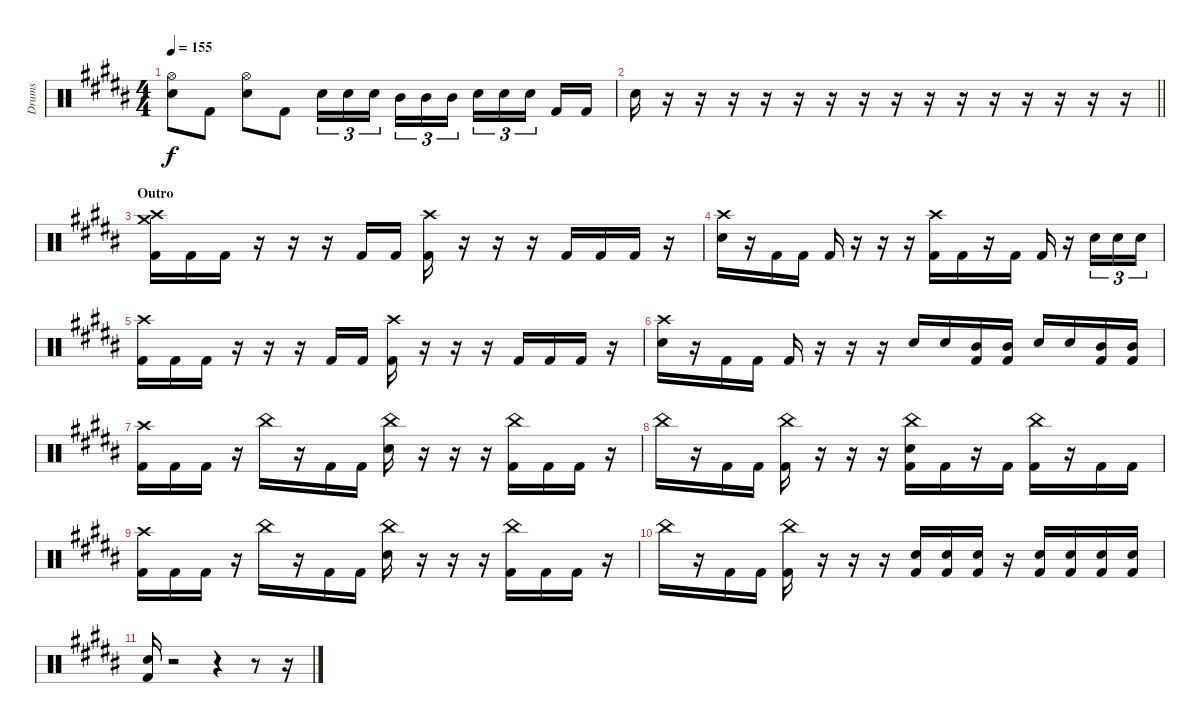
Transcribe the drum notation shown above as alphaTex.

\track ("Drums" "Drums") {instrument percussion}
\staff {score}
\articulation defaults
\ts (4 4)
\tempo 155
\clef neutral
\ks g#minor
("Hi-Hat (open)" "Electric Snare (hit)").8{dy f} "Kick (hit) 2".8 ("Hi-Hat (open)" "Electric Snare (hit)").8 "Kick (hit) 2".8 "Electric Snare (hit)".16{tu (3 2)} "Electric Snare (hit)".16{tu (3 2)} "Electric Snare (hit)".16{tu (3 2) beam splitsecondary} "Mid Tom (hit)".16{tu (3 2)} "Mid Tom (hit)".16{tu (3 2)} "Mid Tom (hit)".16{tu (3 2)} "Electric Snare (hit)".16{tu (3 2)} "Electric Snare (hit)".16{tu (3 2)} "Electric Snare (hit)".16{tu (3 2) beam splitsecondary} "Kick (hit) 2".16 "Kick (hit) 2".16 |
\barLineRight lightlight "Electric Snare (hit)".16
r.16 r.16 r.16 r.16 r.16 r.16 r.16 r.16 r.16 r.16 r.16 r.16 r.16 r.16 r.16 |
\section ("" "Outro")
("Crash high (hit)" "Crash medium (hit)" "Kick (hit) 2").16 "Kick (hit) 2".16 "Kick (hit) 2".16 r.16 r.16 r.16 "Kick (hit) 2".16 "Kick (hit) 2".16 ("Crash high (hit)" "Kick (hit) 2").16 r.16 r.16 r.16 "Kick (hit) 2".16 "Kick (hit) 2".16 "Kick (hit) 2".16 r.16 |
("Crash high (hit)" "Electric Snare (hit)").16 r.16 "Kick (hit) 2".16 "Kick (hit) 2".16 "Kick (hit) 2".16 r.16 r.16 r.16 ("Crash high (hit)" "Kick (hit) 2").16 "Kick (hit) 2".16 r.16 "Kick (hit) 2".16 "Kick (hit) 2".16 r.16 "Electric Snare (hit)".16{tu (3 2)} "Electric Snare (hit)".16{tu (3 2)} "Electric Snare (hit)".16{tu (3 2)} |
("Crash high (hit)" "Kick (hit) 2").16 "Kick (hit) 2".16 "Kick (hit) 2".16 r.16 r.16 r.16 "Kick (hit) 2".16 "Kick (hit) 2".16 ("Crash high (hit)" "Kick (hit) 2").16 r.16 r.16 r.16 "Kick (hit) 2".16 "Kick (hit) 2".16 "Kick (hit) 2".16 r.16 |
("Crash high (hit)" "Electric Snare (hit)").16 r.16 "Kick (hit) 2".16 "Kick (hit) 2".16 "Kick (hit) 2".16 r.16 r.16 r.16 "Electric Snare (hit)".16 "Electric Snare (hit)".16 ("Mid Tom (hit)" "Kick (hit) 2").16 ("Mid Tom (hit)" "Kick (hit) 2").16 "Electric Snare (hit)".16 "Electric Snare (hit)".16 ("Mid Tom (hit)" "Kick (hit) 2").16 ("Mid Tom (hit)" "Kick (hit) 2").16 |
("Crash high (hit)" "Kick (hit) 2").16 "Kick (hit) 2".16 "Kick (hit) 2".16 r.16 "China (hit)".16 r.16 "Kick (hit) 2".16 "Kick (hit) 2".16 ("China (hit)" "Electric Snare (hit)").16 r.16 r.16 r.16 ("China (hit)" "Kick (hit) 2").16 "Kick (hit) 2".16 "Kick (hit) 2".16 r.16 |
"China (hit)".16 r.16 "Kick (hit) 2".16 "Kick (hit) 2".16 ("China (hit)" "Kick (hit) 2").16 r.16 r.16 r.16 ("China (hit)" "Electric Snare (hit)" "Kick (hit) 2").16 "Kick (hit) 2".16 r.16 "Kick (hit) 2".16 ("China (hit)" "Kick (hit) 2").16 r.16 "Kick (hit) 2".16 "Kick (hit) 2".16 |
("Crash high (hit)" "Kick (hit) 2").16 "Kick (hit) 2".16 "Kick (hit) 2".16 r.16 "China (hit)".16 r.16 "Kick (hit) 2".16 "Kick (hit) 2".16 ("China (hit)" "Electric Snare (hit)").16 r.16 r.16 r.16 ("China (hit)" "Kick (hit) 2").16 "Kick (hit) 2".16 "Kick (hit) 2".16 r.16 |
"China (hit)".16 r.16 "Kick (hit) 2".16 "Kick (hit) 2".16 ("China (hit)" "Kick (hit) 2").16 r.16 r.16 r.16 ("Electric Snare (hit)" "Kick (hit) 2").16 ("Electric Snare (hit)" "Kick (hit) 2").16 ("Electric Snare (hit)" "Kick (hit) 2").16 r.16 ("Electric Snare (hit)" "Kick (hit) 2").16 ("Electric Snare (hit)" "Kick (hit) 2").16 ("Electric Snare (hit)" "Kick (hit) 2").16 ("Electric Snare (hit)" "Kick (hit) 2").16 |
("Electric Snare (hit)" "Kick (hit) 2").16 r.2 r.4 r.8 r.16
